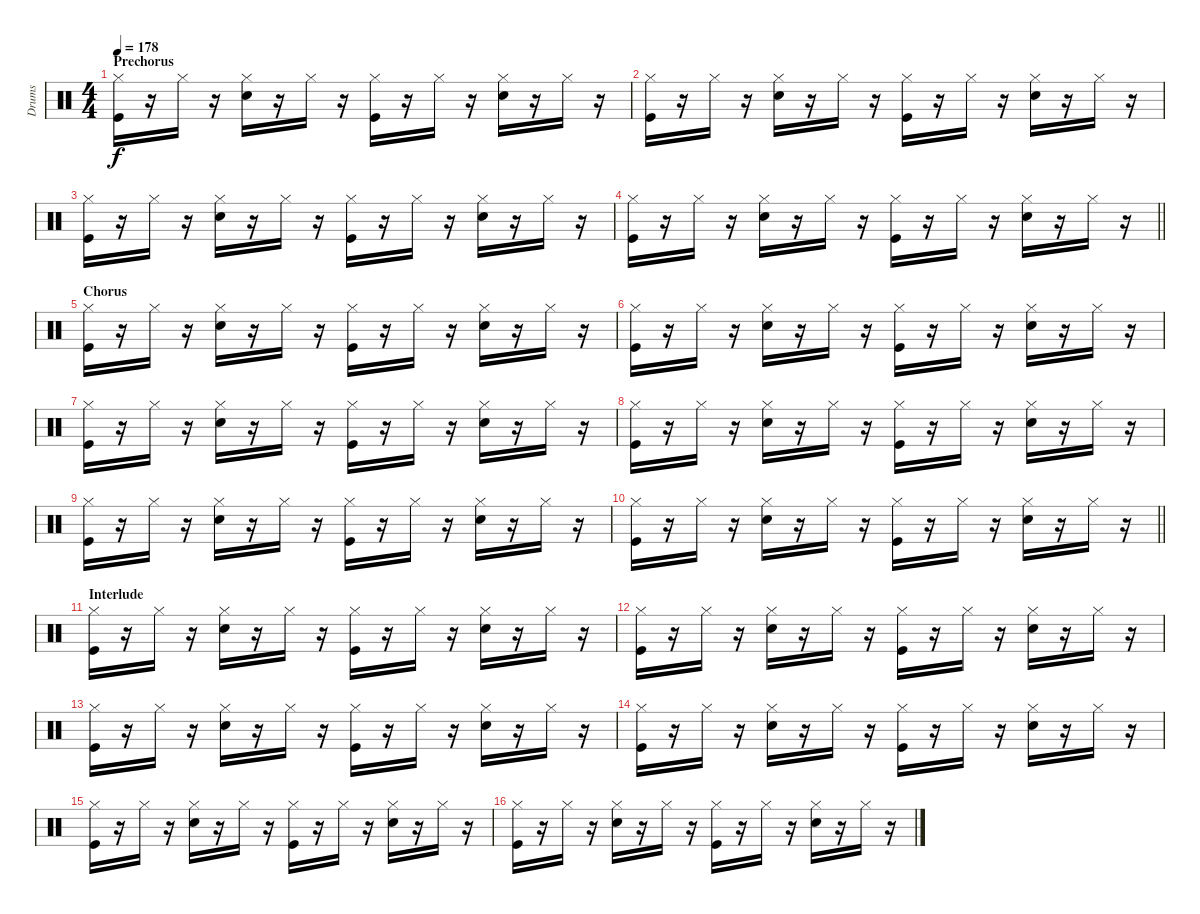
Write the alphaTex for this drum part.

\track ("Drums               " "Drums     ") {instrument percussion}
\staff {score}
\articulation defaults
\ts (4 4)
\section ("" "Prechorus")
\tempo 178
\clef neutral
\ks c
("Kick (hit)" "Hi-Hat (closed)").16{dy f} r.16 "Hi-Hat (closed)".16 r.16 ("Snare (hit) 2" "Hi-Hat (closed)").16 r.16 "Hi-Hat (closed)".16 r.16 ("Kick (hit)" "Hi-Hat (closed)").16 r.16 "Hi-Hat (closed)".16 r.16 ("Snare (hit) 2" "Hi-Hat (closed)").16 r.16 "Hi-Hat (closed)".16 r.16 |
("Kick (hit)" "Hi-Hat (closed)").16 r.16 "Hi-Hat (closed)".16 r.16 ("Snare (hit) 2" "Hi-Hat (closed)").16 r.16 "Hi-Hat (closed)".16 r.16 ("Kick (hit)" "Hi-Hat (closed)").16 r.16 "Hi-Hat (closed)".16 r.16 ("Snare (hit) 2" "Hi-Hat (closed)").16 r.16 "Hi-Hat (closed)".16 r.16 |
("Kick (hit)" "Hi-Hat (closed)").16 r.16 "Hi-Hat (closed)".16 r.16 ("Snare (hit) 2" "Hi-Hat (closed)").16 r.16 "Hi-Hat (closed)".16 r.16 ("Kick (hit)" "Hi-Hat (closed)").16 r.16 "Hi-Hat (closed)".16 r.16 ("Snare (hit) 2" "Hi-Hat (closed)").16 r.16 "Hi-Hat (closed)".16 r.16 |
\barLineRight lightlight
("Kick (hit)" "Hi-Hat (closed)").16 r.16 "Hi-Hat (closed)".16 r.16 ("Snare (hit) 2" "Hi-Hat (closed)").16 r.16 "Hi-Hat (closed)".16 r.16 ("Kick (hit)" "Hi-Hat (closed)").16 r.16 "Hi-Hat (closed)".16 r.16 ("Snare (hit) 2" "Hi-Hat (closed)").16 r.16 "Hi-Hat (closed)".16 r.16 |
\section ("" "Chorus")
("Kick (hit)" "Hi-Hat (closed)").16 r.16 "Hi-Hat (closed)".16 r.16 ("Snare (hit) 2" "Hi-Hat (closed)").16 r.16 "Hi-Hat (closed)".16 r.16 ("Kick (hit)" "Hi-Hat (closed)").16 r.16 "Hi-Hat (closed)".16 r.16 ("Snare (hit) 2" "Hi-Hat (closed)").16 r.16 "Hi-Hat (closed)".16 r.16 |
("Kick (hit)" "Hi-Hat (closed)").16 r.16 "Hi-Hat (closed)".16 r.16 ("Snare (hit) 2" "Hi-Hat (closed)").16 r.16 "Hi-Hat (closed)".16 r.16 ("Kick (hit)" "Hi-Hat (closed)").16 r.16 "Hi-Hat (closed)".16 r.16 ("Snare (hit) 2" "Hi-Hat (closed)").16 r.16 "Hi-Hat (closed)".16 r.16 |
("Kick (hit)" "Hi-Hat (closed)").16 r.16 "Hi-Hat (closed)".16 r.16 ("Snare (hit) 2" "Hi-Hat (closed)").16 r.16 "Hi-Hat (closed)".16 r.16 ("Kick (hit)" "Hi-Hat (closed)").16 r.16 "Hi-Hat (closed)".16 r.16 ("Snare (hit) 2" "Hi-Hat (closed)").16 r.16 "Hi-Hat (closed)".16 r.16 |
("Kick (hit)" "Hi-Hat (closed)").16 r.16 "Hi-Hat (closed)".16 r.16 ("Snare (hit) 2" "Hi-Hat (closed)").16 r.16 "Hi-Hat (closed)".16 r.16 ("Kick (hit)" "Hi-Hat (closed)").16 r.16 "Hi-Hat (closed)".16 r.16 ("Snare (hit) 2" "Hi-Hat (closed)").16 r.16 "Hi-Hat (closed)".16 r.16 |
("Kick (hit)" "Hi-Hat (closed)").16 r.16 "Hi-Hat (closed)".16 r.16 ("Snare (hit) 2" "Hi-Hat (closed)").16 r.16 "Hi-Hat (closed)".16 r.16 ("Kick (hit)" "Hi-Hat (closed)").16 r.16 "Hi-Hat (closed)".16 r.16 ("Snare (hit) 2" "Hi-Hat (closed)").16 r.16 "Hi-Hat (closed)".16 r.16 |
\barLineRight lightlight
("Kick (hit)" "Hi-Hat (closed)").16 r.16 "Hi-Hat (closed)".16 r.16 ("Snare (hit) 2" "Hi-Hat (closed)").16 r.16 "Hi-Hat (closed)".16 r.16 ("Kick (hit)" "Hi-Hat (closed)").16 r.16 "Hi-Hat (closed)".16 r.16 ("Snare (hit) 2" "Hi-Hat (closed)").16 r.16 "Hi-Hat (closed)".16 r.16 |
\section ("" "Interlude")
("Kick (hit)" "Hi-Hat (closed)").16 r.16 "Hi-Hat (closed)".16 r.16 ("Snare (hit) 2" "Hi-Hat (closed)").16 r.16 "Hi-Hat (closed)".16 r.16 ("Kick (hit)" "Hi-Hat (closed)").16 r.16 "Hi-Hat (closed)".16 r.16 ("Snare (hit) 2" "Hi-Hat (closed)").16 r.16 "Hi-Hat (closed)".16 r.16 |
("Kick (hit)" "Hi-Hat (closed)").16 r.16 "Hi-Hat (closed)".16 r.16 ("Snare (hit) 2" "Hi-Hat (closed)").16 r.16 "Hi-Hat (closed)".16 r.16 ("Kick (hit)" "Hi-Hat (closed)").16 r.16 "Hi-Hat (closed)".16 r.16 ("Snare (hit) 2" "Hi-Hat (closed)").16 r.16 "Hi-Hat (closed)".16 r.16 |
("Kick (hit)" "Hi-Hat (closed)").16 r.16 "Hi-Hat (closed)".16 r.16 ("Snare (hit) 2" "Hi-Hat (closed)").16 r.16 "Hi-Hat (closed)".16 r.16 ("Kick (hit)" "Hi-Hat (closed)").16 r.16 "Hi-Hat (closed)".16 r.16 ("Snare (hit) 2" "Hi-Hat (closed)").16 r.16 "Hi-Hat (closed)".16 r.16 |
("Kick (hit)" "Hi-Hat (closed)").16 r.16 "Hi-Hat (closed)".16 r.16 ("Snare (hit) 2" "Hi-Hat (closed)").16 r.16 "Hi-Hat (closed)".16 r.16 ("Kick (hit)" "Hi-Hat (closed)").16 r.16 "Hi-Hat (closed)".16 r.16 ("Snare (hit) 2" "Hi-Hat (closed)").16 r.16 "Hi-Hat (closed)".16 r.16 |
("Kick (hit)" "Hi-Hat (closed)").16 r.16 "Hi-Hat (closed)".16 r.16 ("Snare (hit) 2" "Hi-Hat (closed)").16 r.16 "Hi-Hat (closed)".16 r.16 ("Kick (hit)" "Hi-Hat (closed)").16 r.16 "Hi-Hat (closed)".16 r.16 ("Snare (hit) 2" "Hi-Hat (closed)").16 r.16 "Hi-Hat (closed)".16 r.16 |
("Kick (hit)" "Hi-Hat (closed)").16 r.16 "Hi-Hat (closed)".16 r.16 ("Snare (hit) 2" "Hi-Hat (closed)").16 r.16 "Hi-Hat (closed)".16 r.16 ("Kick (hit)" "Hi-Hat (closed)").16 r.16 "Hi-Hat (closed)".16 r.16 ("Snare (hit) 2" "Hi-Hat (closed)").16 r.16 "Hi-Hat (closed)".16 r.16
